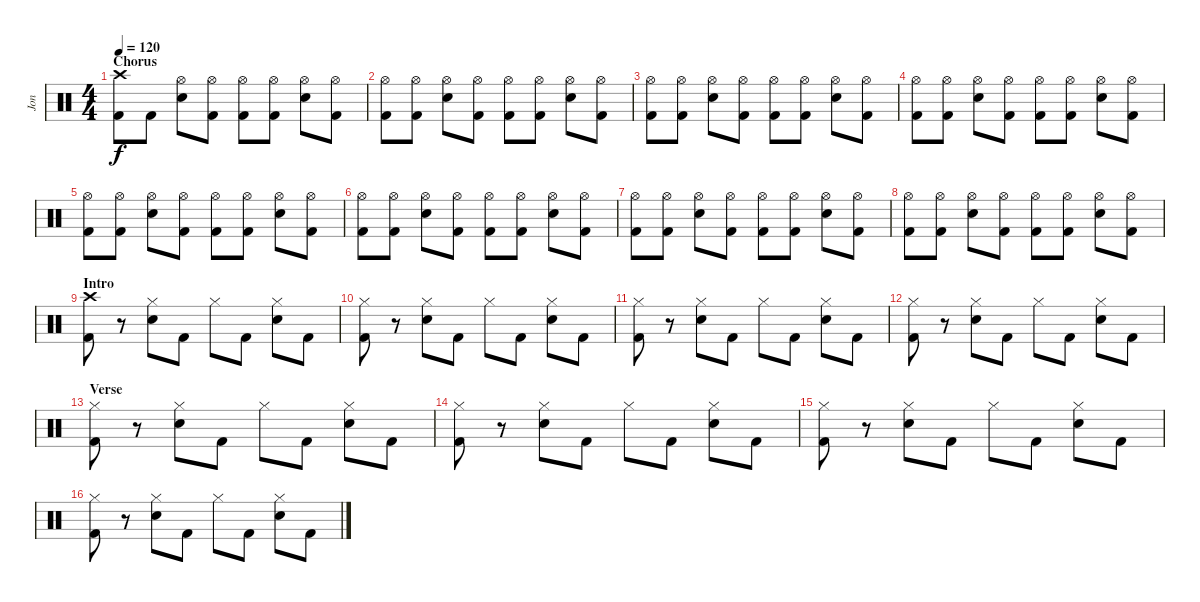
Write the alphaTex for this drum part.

\track ("Jon" "Jon") {instrument percussion}
\staff {score}
\articulation defaults
\ts (4 4)
\section ("" "Chorus")
\tempo 120
\clef neutral
\ks c
("Crash high (hit)" "Kick (hit) 2").8{dy f} "Kick (hit) 2".8 ("Hi-Hat (open)" "Electric Snare (hit)").8 ("Hi-Hat (open)" "Kick (hit) 2").8 ("Hi-Hat (open)" "Kick (hit) 2").8 ("Hi-Hat (open)" "Kick (hit) 2").8 ("Hi-Hat (open)" "Electric Snare (hit)").8 ("Hi-Hat (open)" "Kick (hit) 2").8 |
("Hi-Hat (open)" "Kick (hit) 2").8 ("Hi-Hat (open)" "Kick (hit) 2").8 ("Hi-Hat (open)" "Electric Snare (hit)").8 ("Hi-Hat (open)" "Kick (hit) 2").8 ("Hi-Hat (open)" "Kick (hit) 2").8 ("Hi-Hat (open)" "Kick (hit) 2").8 ("Hi-Hat (open)" "Electric Snare (hit)").8 ("Hi-Hat (open)" "Kick (hit) 2").8 |
("Hi-Hat (open)" "Kick (hit) 2").8 ("Hi-Hat (open)" "Kick (hit) 2").8 ("Hi-Hat (open)" "Electric Snare (hit)").8 ("Hi-Hat (open)" "Kick (hit) 2").8 ("Hi-Hat (open)" "Kick (hit) 2").8 ("Hi-Hat (open)" "Kick (hit) 2").8 ("Hi-Hat (open)" "Electric Snare (hit)").8 ("Hi-Hat (open)" "Kick (hit) 2").8 |
("Hi-Hat (open)" "Kick (hit) 2").8 ("Hi-Hat (open)" "Kick (hit) 2").8 ("Hi-Hat (open)" "Electric Snare (hit)").8 ("Hi-Hat (open)" "Kick (hit) 2").8 ("Hi-Hat (open)" "Kick (hit) 2").8 ("Hi-Hat (open)" "Kick (hit) 2").8 ("Hi-Hat (open)" "Electric Snare (hit)").8 ("Hi-Hat (open)" "Kick (hit) 2").8 |
("Hi-Hat (open)" "Kick (hit) 2").8 ("Hi-Hat (open)" "Kick (hit) 2").8 ("Hi-Hat (open)" "Electric Snare (hit)").8 ("Hi-Hat (open)" "Kick (hit) 2").8 ("Hi-Hat (open)" "Kick (hit) 2").8 ("Hi-Hat (open)" "Kick (hit) 2").8 ("Hi-Hat (open)" "Electric Snare (hit)").8 ("Hi-Hat (open)" "Kick (hit) 2").8 |
("Hi-Hat (open)" "Kick (hit) 2").8 ("Hi-Hat (open)" "Kick (hit) 2").8 ("Hi-Hat (open)" "Electric Snare (hit)").8 ("Hi-Hat (open)" "Kick (hit) 2").8 ("Hi-Hat (open)" "Kick (hit) 2").8 ("Hi-Hat (open)" "Kick (hit) 2").8 ("Hi-Hat (open)" "Electric Snare (hit)").8 ("Hi-Hat (open)" "Kick (hit) 2").8 |
("Hi-Hat (open)" "Kick (hit) 2").8 ("Hi-Hat (open)" "Kick (hit) 2").8 ("Hi-Hat (open)" "Electric Snare (hit)").8 ("Hi-Hat (open)" "Kick (hit) 2").8 ("Hi-Hat (open)" "Kick (hit) 2").8 ("Hi-Hat (open)" "Kick (hit) 2").8 ("Hi-Hat (open)" "Electric Snare (hit)").8 ("Hi-Hat (open)" "Kick (hit) 2").8 |
("Hi-Hat (open)" "Kick (hit) 2").8 ("Hi-Hat (open)" "Kick (hit) 2").8 ("Hi-Hat (open)" "Electric Snare (hit)").8 ("Hi-Hat (open)" "Kick (hit) 2").8 ("Hi-Hat (open)" "Kick (hit) 2").8 ("Hi-Hat (open)" "Kick (hit) 2").8 ("Hi-Hat (open)" "Electric Snare (hit)").8 ("Hi-Hat (open)" "Kick (hit) 2").8 |
\section ("" "Intro")
("Crash high (hit)" "Kick (hit) 2").8 r.8 ("Hi-Hat (closed)" "Electric Snare (hit)").8 "Kick (hit) 2".8 "Hi-Hat (closed)".8 "Kick (hit) 2".8 ("Hi-Hat (closed)" "Electric Snare (hit)").8 "Kick (hit) 2".8 |
("Hi-Hat (closed)" "Kick (hit) 2").8 r.8 ("Hi-Hat (closed)" "Electric Snare (hit)").8 "Kick (hit) 2".8 "Hi-Hat (closed)".8 "Kick (hit) 2".8 ("Hi-Hat (closed)" "Electric Snare (hit)").8 "Kick (hit) 2".8 |
("Hi-Hat (closed)" "Kick (hit) 2").8 r.8 ("Hi-Hat (closed)" "Electric Snare (hit)").8 "Kick (hit) 2".8 "Hi-Hat (closed)".8 "Kick (hit) 2".8 ("Hi-Hat (closed)" "Electric Snare (hit)").8 "Kick (hit) 2".8 |
("Hi-Hat (closed)" "Kick (hit) 2").8 r.8 ("Hi-Hat (closed)" "Electric Snare (hit)").8 "Kick (hit) 2".8 "Hi-Hat (closed)".8 "Kick (hit) 2".8 ("Hi-Hat (closed)" "Electric Snare (hit)").8 "Kick (hit) 2".8 |
\section ("" "Verse")
("Hi-Hat (closed)" "Kick (hit) 2").8 r.8 ("Hi-Hat (closed)" "Electric Snare (hit)").8 "Kick (hit) 2".8 "Hi-Hat (closed)".8 "Kick (hit) 2".8 ("Hi-Hat (closed)" "Electric Snare (hit)").8 "Kick (hit) 2".8 |
("Hi-Hat (closed)" "Kick (hit) 2").8 r.8 ("Hi-Hat (closed)" "Electric Snare (hit)").8 "Kick (hit) 2".8 "Hi-Hat (closed)".8 "Kick (hit) 2".8 ("Hi-Hat (closed)" "Electric Snare (hit)").8 "Kick (hit) 2".8 |
("Hi-Hat (closed)" "Kick (hit) 2").8 r.8 ("Hi-Hat (closed)" "Electric Snare (hit)").8 "Kick (hit) 2".8 "Hi-Hat (closed)".8 "Kick (hit) 2".8 ("Hi-Hat (closed)" "Electric Snare (hit)").8 "Kick (hit) 2".8 |
("Hi-Hat (closed)" "Kick (hit) 2").8 r.8 ("Hi-Hat (closed)" "Electric Snare (hit)").8 "Kick (hit) 2".8 "Hi-Hat (closed)".8 "Kick (hit) 2".8 ("Hi-Hat (closed)" "Electric Snare (hit)").8 "Kick (hit) 2".8
